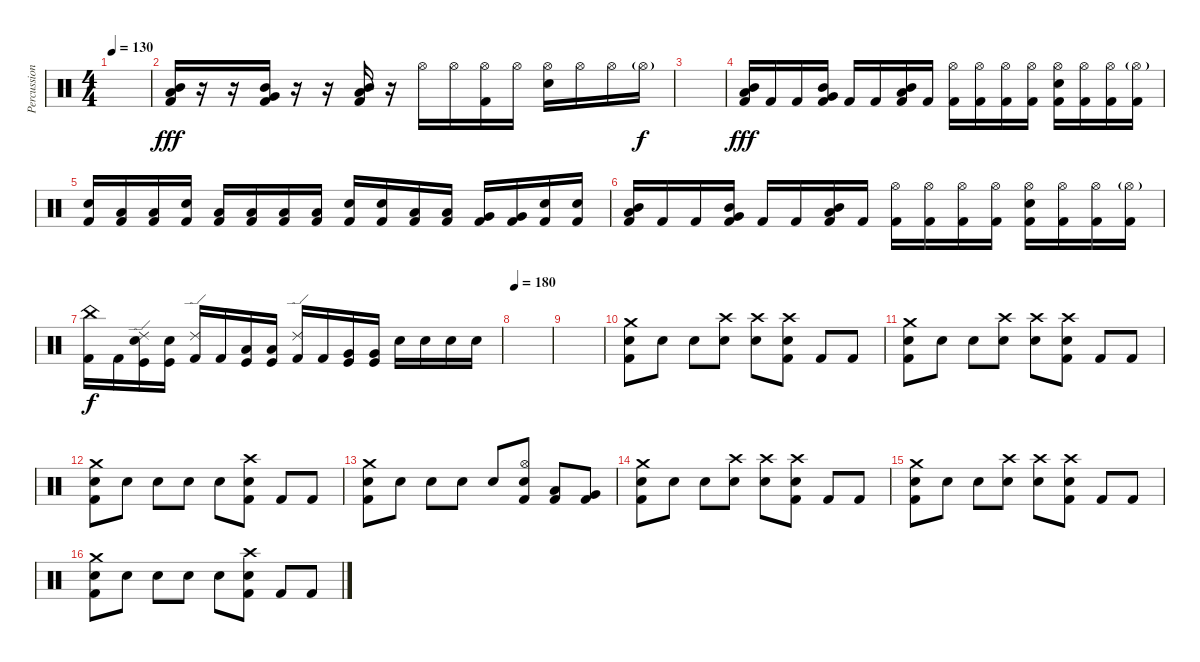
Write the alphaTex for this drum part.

\track ("Percussion" "Percussion") {instrument percussion}
\staff {score}
\articulation defaults
\ts (4 4)
\tempo 130
\clef neutral
\ks c
|
("Low Tom (hit)" "Mid Tom (hit)" "Kick (hit) 2").16{dy fff} r.16 r.16 ("Very Low Tom (hit)" "Mid Tom (hit)" "Kick (hit) 2").16 r.16 r.16 ("Low Tom (hit)" "Mid Tom (hit)" "Kick (hit) 2").16 r.16 "Hi-Hat (open)".16 "Hi-Hat (open)".16 ("Hi-Hat (open)" "Kick (hit) 2").16 "Hi-Hat (open)".16 ("Hi-Hat (open)" "Electric Snare (hit)").16 "Hi-Hat (open)".16 "Hi-Hat (open)".16 "Hi-Hat (open)"{g}.16{dy f} |
|
("Low Tom (hit)" "Mid Tom (hit)" "Kick (hit) 2").16{dy fff} "Kick (hit) 2".16 "Kick (hit) 2".16 ("Very Low Tom (hit)" "Mid Tom (hit)" "Kick (hit) 2").16 "Kick (hit) 2".16 "Kick (hit) 2".16 ("Low Tom (hit)" "Mid Tom (hit)" "Kick (hit) 2").16 "Kick (hit) 2".16 ("Hi-Hat (open)" "Kick (hit) 2").16 ("Hi-Hat (open)" "Kick (hit) 2").16 ("Hi-Hat (open)" "Kick (hit) 2").16 ("Hi-Hat (open)" "Kick (hit) 2").16 ("Hi-Hat (open)" "Electric Snare (hit)" "Kick (hit) 2").16 ("Hi-Hat (open)" "Kick (hit) 2").16 ("Hi-Hat (open)" "Kick (hit) 2").16 ("Hi-Hat (open)"{g} "Kick (hit) 2").16 |
("Electric Snare (hit)" "Kick (hit) 2").16 ("Low Tom (hit)" "Kick (hit) 2").16 ("Low Tom (hit)" "Kick (hit) 2").16 ("Electric Snare (hit)" "Kick (hit) 2").16 ("Low Tom (hit)" "Kick (hit) 2").16 ("Low Tom (hit)" "Kick (hit) 2").16 ("Low Tom (hit)" "Kick (hit) 2").16 ("Low Tom (hit)" "Kick (hit) 2").16 ("Electric Snare (hit)" "Kick (hit) 2").16 ("Electric Snare (hit)" "Kick (hit) 2").16 ("Low Tom (hit)" "Kick (hit) 2").16 ("Low Tom (hit)" "Kick (hit) 2").16 ("Very Low Tom (hit)" "Kick (hit) 2").16 ("Very Low Tom (hit)" "Kick (hit) 2").16 ("Electric Snare (hit)" "Kick (hit) 2").16 ("Electric Snare (hit)" "Kick (hit) 2").16 |
("Low Tom (hit)" "Mid Tom (hit)" "Kick (hit) 2").16 "Kick (hit) 2".16 "Kick (hit) 2".16 ("Very Low Tom (hit)" "Mid Tom (hit)" "Kick (hit) 2").16 "Kick (hit) 2".16 "Kick (hit) 2".16 ("Low Tom (hit)" "Mid Tom (hit)" "Kick (hit) 2").16 "Kick (hit) 2".16 ("Hi-Hat (open)" "Kick (hit) 2").16 ("Hi-Hat (open)" "Kick (hit) 2").16 ("Hi-Hat (open)" "Kick (hit) 2").16 ("Hi-Hat (open)" "Kick (hit) 2").16 ("Hi-Hat (open)" "Electric Snare (hit)" "Kick (hit) 2").16 ("Hi-Hat (open)" "Kick (hit) 2").16 ("Hi-Hat (open)" "Kick (hit) 2").16 ("Hi-Hat (open)"{g} "Kick (hit) 2").16 |
("China (hit)" "Kick (hit) 2").16{dy f} "Kick (hit) 2".16 ("Ride (edge) 2" "Electric Snare (hit)" "Kick (hit)").16 ("Electric Snare (hit)" "Kick (hit)").16 ("Ride (edge) 2" "Kick (hit) 2").16 "Kick (hit) 2".16 ("Low Tom (hit)" "Kick (hit)").16 ("Low Tom (hit)" "Kick (hit)").16 ("Ride (edge) 2" "Kick (hit) 2").16 "Kick (hit) 2".16 ("Very Low Tom (hit)" "Kick (hit)").16 ("Very Low Tom (hit)" "Kick (hit)").16 "Electric Snare (hit)".16 "Electric Snare (hit)".16 "Electric Snare (hit)".16 "Electric Snare (hit)".16 |
\tempo 180
|
|
("Crash medium (hit)" "Electric Snare (hit)" "Kick (hit) 2").8 "Electric Snare (hit)".8 "Electric Snare (hit)".8 ("Crash high (hit)" "Electric Snare (hit)").8 ("Crash high (hit)" "Electric Snare (hit)").8 ("Crash high (hit)" "Electric Snare (hit)" "Kick (hit) 2").8 "Kick (hit) 2".8 "Kick (hit) 2".8 |
("Crash medium (hit)" "Electric Snare (hit)" "Kick (hit) 2").8 "Electric Snare (hit)".8 "Electric Snare (hit)".8 ("Crash high (hit)" "Electric Snare (hit)").8 ("Crash high (hit)" "Electric Snare (hit)").8 ("Crash high (hit)" "Electric Snare (hit)" "Kick (hit) 2").8 "Kick (hit) 2".8 "Kick (hit) 2".8 |
("Crash medium (hit)" "Electric Snare (hit)" "Kick (hit) 2").8 "Electric Snare (hit)".8 "Electric Snare (hit)".8 "Electric Snare (hit)".8 "Electric Snare (hit)".8 ("Crash high (hit)" "Electric Snare (hit)" "Kick (hit) 2").8 "Kick (hit) 2".8 "Kick (hit) 2".8 |
("Crash medium (hit)" "Electric Snare (hit)" "Kick (hit) 2").8 "Electric Snare (hit)".8 "Electric Snare (hit)".8 "Electric Snare (hit)".8 "Electric Snare (hit)".8 ("Hi-Hat (open)" "Electric Snare (hit)" "Kick (hit) 2").8 ("Low Tom (hit)" "Kick (hit) 2").8 ("Very Low Tom (hit)" "Kick (hit) 2").8 |
("Crash medium (hit)" "Electric Snare (hit)" "Kick (hit) 2").8 "Electric Snare (hit)".8 "Electric Snare (hit)".8 ("Crash high (hit)" "Electric Snare (hit)").8 ("Crash high (hit)" "Electric Snare (hit)").8 ("Crash high (hit)" "Electric Snare (hit)" "Kick (hit) 2").8 "Kick (hit) 2".8 "Kick (hit) 2".8 |
("Crash medium (hit)" "Electric Snare (hit)" "Kick (hit) 2").8 "Electric Snare (hit)".8 "Electric Snare (hit)".8 ("Crash high (hit)" "Electric Snare (hit)").8 ("Crash high (hit)" "Electric Snare (hit)").8 ("Crash high (hit)" "Electric Snare (hit)" "Kick (hit) 2").8 "Kick (hit) 2".8 "Kick (hit) 2".8 |
("Crash medium (hit)" "Electric Snare (hit)" "Kick (hit) 2").8 "Electric Snare (hit)".8 "Electric Snare (hit)".8 "Electric Snare (hit)".8 "Electric Snare (hit)".8 ("Crash high (hit)" "Electric Snare (hit)" "Kick (hit) 2").8 "Kick (hit) 2".8 "Kick (hit) 2".8
